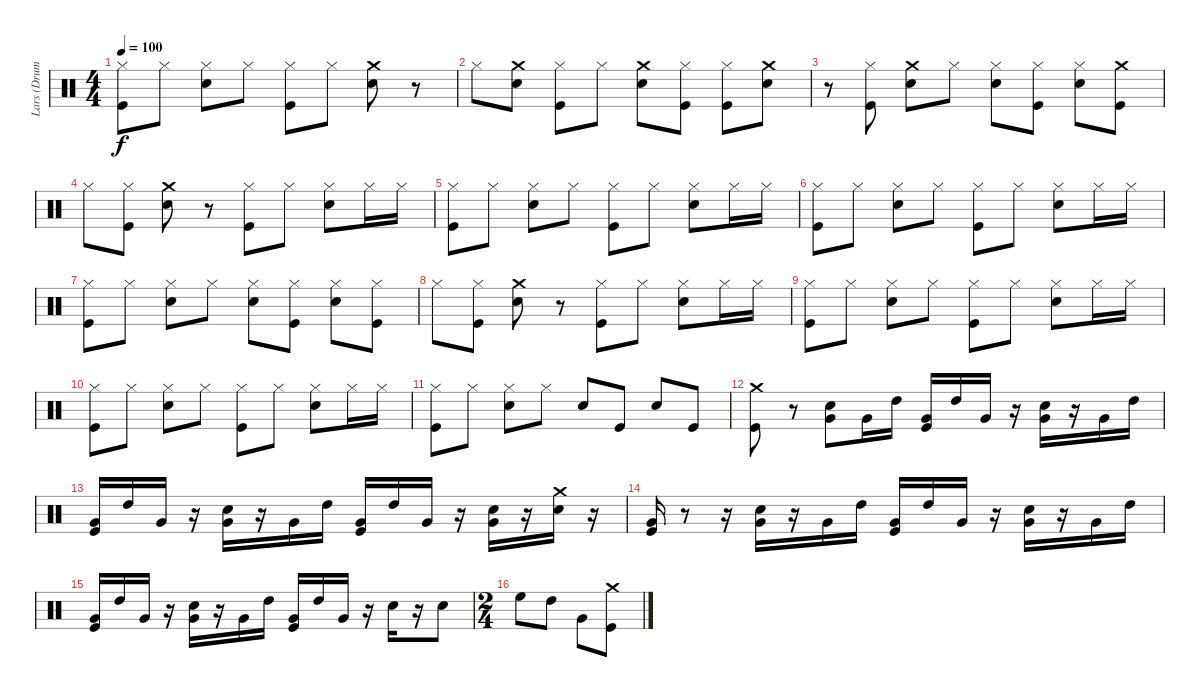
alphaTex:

\track ("Lars (Drums)" "Lars (Drum") {instrument percussion}
\staff {score}
\articulation defaults
\ts (4 4)
\tempo 100
\clef neutral
\ks c
("Kick (hit)" "Hi-Hat (closed)").8{dy f} "Hi-Hat (closed)".8 ("Snare (hit) 2" "Hi-Hat (closed)").8 "Hi-Hat (closed)".8 ("Kick (hit)" "Hi-Hat (closed)").8 "Hi-Hat (closed)".8 ("Crash medium (hit)" "Snare (hit) 2").8 r.8 |
"Hi-Hat (closed)".8 ("Crash medium (hit)" "Snare (hit) 2").8 ("Kick (hit)" "Hi-Hat (closed)").8 "Hi-Hat (closed)".8 ("Snare (hit) 2" "Crash medium (hit)").8 ("Hi-Hat (closed)" "Kick (hit)").8 ("Hi-Hat (closed)" "Kick (hit)").8 ("Crash medium (hit)" "Snare (hit) 2").8 |
r.8 ("Kick (hit)" "Hi-Hat (closed)").8 ("Crash medium (hit)" "Snare (hit) 2").8 "Hi-Hat (closed)".8 ("Hi-Hat (closed)" "Snare (hit) 2").8 ("Hi-Hat (closed)" "Kick (hit)").8 ("Hi-Hat (closed)" "Snare (hit) 2").8 ("Crash medium (hit)" "Kick (hit)").8 |
"Hi-Hat (closed)".8 ("Kick (hit)" "Hi-Hat (closed)").8 ("Crash medium (hit)" "Snare (hit) 2").8 r.8 ("Hi-Hat (closed)" "Kick (hit)").8 "Hi-Hat (closed)".8 ("Hi-Hat (closed)" "Snare (hit) 2").8 "Hi-Hat (closed)".16 "Hi-Hat (closed)".16 |
("Hi-Hat (closed)" "Kick (hit)").8 "Hi-Hat (closed)".8 ("Snare (hit) 2" "Hi-Hat (closed)").8 "Hi-Hat (closed)".8 ("Kick (hit)" "Hi-Hat (closed)").8 "Hi-Hat (closed)".8 ("Snare (hit) 2" "Hi-Hat (closed)").8 "Hi-Hat (closed)".16 "Hi-Hat (closed)".16 |
("Hi-Hat (closed)" "Kick (hit)").8 "Hi-Hat (closed)".8 ("Snare (hit) 2" "Hi-Hat (closed)").8 "Hi-Hat (closed)".8 ("Hi-Hat (closed)" "Kick (hit)").8 "Hi-Hat (closed)".8 ("Snare (hit) 2" "Hi-Hat (closed)").8 "Hi-Hat (closed)".16 "Hi-Hat (closed)".16 |
("Hi-Hat (closed)" "Kick (hit)").8 "Hi-Hat (closed)".8 ("Snare (hit) 2" "Hi-Hat (closed)").8 "Hi-Hat (closed)".8 ("Snare (hit) 2" "Hi-Hat (closed)").8 ("Hi-Hat (closed)" "Kick (hit)").8 ("Snare (hit) 2" "Hi-Hat (closed)").8 ("Kick (hit)" "Hi-Hat (closed)").8 |
"Hi-Hat (closed)".8 ("Hi-Hat (closed)" "Kick (hit)").8 ("Crash medium (hit)" "Snare (hit) 2").8 r.8 ("Hi-Hat (closed)" "Kick (hit)").8 "Hi-Hat (closed)".8 ("Snare (hit) 2" "Hi-Hat (closed)").8 "Hi-Hat (closed)".16 "Hi-Hat (closed)".16 |
("Hi-Hat (closed)" "Kick (hit)").8 "Hi-Hat (closed)".8 ("Snare (hit) 2" "Hi-Hat (closed)").8 "Hi-Hat (closed)".8 ("Kick (hit)" "Hi-Hat (closed)").8 "Hi-Hat (closed)".8 ("Hi-Hat (closed)" "Snare (hit) 2").8 "Hi-Hat (closed)".16 "Hi-Hat (closed)".16 |
("Hi-Hat (closed)" "Kick (hit)").8 "Hi-Hat (closed)".8 ("Snare (hit) 2" "Hi-Hat (closed)").8 "Hi-Hat (closed)".8 ("Hi-Hat (closed)" "Kick (hit)").8 "Hi-Hat (closed)".8 ("Hi-Hat (closed)" "Snare (hit) 2").8 "Hi-Hat (closed)".16 "Hi-Hat (closed)".16 |
("Hi-Hat (closed)" "Kick (hit)").8 "Hi-Hat (closed)".8 ("Snare (hit) 2" "Hi-Hat (closed)").8 "Hi-Hat (closed)".8 "Snare (hit) 2".8 "Kick (hit)".8 "Snare (hit) 2".8 "Kick (hit)".8 |
("Crash medium (hit)" "Kick (hit)").8 r.8 ("Very Low Tom (hit)" "Snare (hit) 2").8 "Very Low Tom (hit)".16 "High Tom (hit)".16 ("Very Low Tom (hit)" "Kick (hit)").16 "High Tom (hit)".16 "Very Low Tom (hit)".16 r.16 ("Very Low Tom (hit)" "Snare (hit) 2").16 r.16 "Very Low Tom (hit)".16 "High Tom (hit)".16 |
("Very Low Tom (hit)" "Kick (hit)").16 "High Tom (hit)".16 "Very Low Tom (hit)".16 r.16 ("Very Low Tom (hit)" "Snare (hit) 2").16 r.16 "Very Low Tom (hit)".16 "High Tom (hit)".16 ("Very Low Tom (hit)" "Kick (hit)").16 "High Tom (hit)".16 "Very Low Tom (hit)".16 r.16 ("Very Low Tom (hit)" "Snare (hit) 2").16 r.16 ("Crash medium (hit)" "Snare (hit) 2").16 r.16 |
("Very Low Tom (hit)" "Kick (hit)").16 r.8 r.16 ("Very Low Tom (hit)" "Snare (hit) 2").16 r.16 "Very Low Tom (hit)".16 "High Tom (hit)".16 ("Very Low Tom (hit)" "Kick (hit)").16 "High Tom (hit)".16 "Very Low Tom (hit)".16 r.16 ("Very Low Tom (hit)" "Snare (hit) 2").16 r.16 "Very Low Tom (hit)".16 "High Tom (hit)".16 |
("Very Low Tom (hit)" "Kick (hit)").16 "High Tom (hit)".16 "Very Low Tom (hit)".16 r.16 ("Very Low Tom (hit)" "Snare (hit) 2").16 r.16 "Very Low Tom (hit)".16 "High Tom (hit)".16 ("Very Low Tom (hit)" "Kick (hit)").16 "High Tom (hit)".16 "Very Low Tom (hit)".16 r.16 "Snare (hit) 2".16 r.16 "Snare (hit) 2".8 |
\ts (2 4)
"High Floor Tom (hit)".8 "High Tom (hit)".8 "Very Low Tom (hit)".8 ("Crash medium (hit)" "Kick (hit)").8
